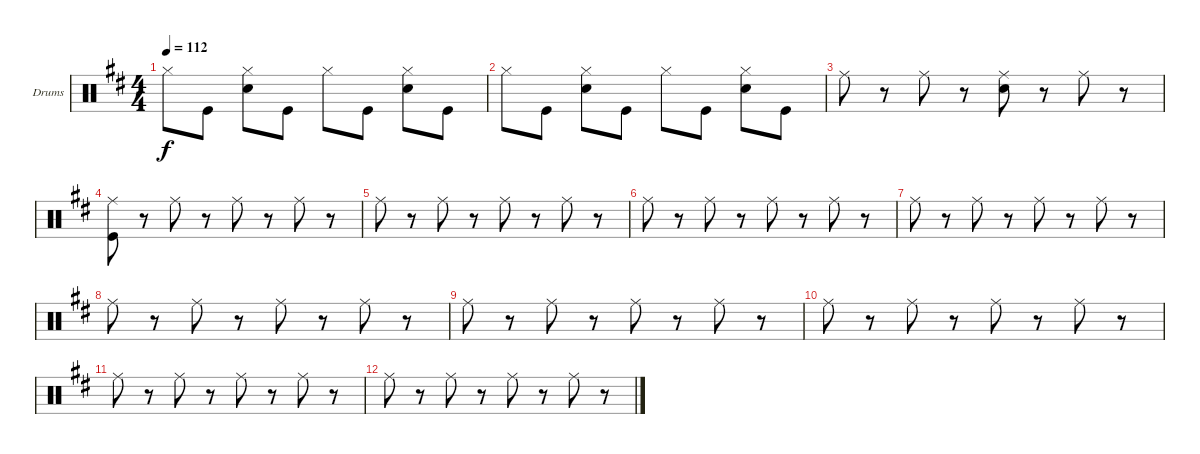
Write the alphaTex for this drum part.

\defaultSystemsLayout 4
\bracketExtendMode groupsimilarinstruments
\firstSystemTrackNameOrientation horizontal
\otherSystemsTrackNameOrientation horizontal
\track ("Drumkit" "Drums") {instrument percussion}
\staff {score}
\articulation defaults
\ts (4 4)
\tempo 112
\clef neutral
\scale
1.05044
\ks d "Hi-Hat (closed)".8{dy f} "Kick (hit)".8
("Hi-Hat (closed)" "Snare (hit) 2").8 "Kick (hit)".8 "Hi-Hat (closed)".8 "Kick (hit)".8 ("Hi-Hat (closed)" "Snare (hit) 2").8 "Kick (hit)".8 |
\scale
0.949559 "Hi-Hat (closed)".8 "Kick (hit)".8 ("Hi-Hat (closed)" "Snare (hit) 2").8 "Kick (hit)".8 "Hi-Hat (closed)".8 "Kick (hit)".8 ("Hi-Hat (closed)" "Snare (hit) 2").8 "Kick (hit)".8 |
\scale
1.05044 "Ride (middle)".8 r.8 "Ride (middle)".8 r.8 ("Ride (middle)" "Snare (hit) 2").8 r.8 "Ride (middle)".8 r.8 |
\scale
0.949559 ("Ride (middle)" "Kick (hit)").8 r.8 "Ride (middle)".8 r.8 "Ride (middle)".8 r.8 "Ride (middle)".8 r.8 |
\scale
1.05044 "Ride (middle)".8 r.8 "Ride (middle)".8 r.8 "Ride (middle)".8 r.8 "Ride (middle)".8 r.8 |
\scale
0.949559 "Ride (middle)".8 r.8 "Ride (middle)".8 r.8 "Ride (middle)".8 r.8 "Ride (middle)".8 r.8 |
\scale
1.05044 "Ride (middle)".8 r.8 "Ride (middle)".8 r.8 "Ride (middle)".8 r.8 "Ride (middle)".8 r.8 |
\scale
0.949559 "Ride (middle)".8 r.8 "Ride (middle)".8 r.8 "Ride (middle)".8 r.8 "Ride (middle)".8 r.8 |
\scale
1.05044 "Ride (middle)".8 r.8 "Ride (middle)".8 r.8 "Ride (middle)".8 r.8 "Ride (middle)".8 r.8 |
\scale
0.949559 "Ride (middle)".8 r.8 "Ride (middle)".8 r.8 "Ride (middle)".8 r.8 "Ride (middle)".8 r.8 |
\scale
1.05044 "Ride (middle)".8 r.8 "Ride (middle)".8 r.8 "Ride (middle)".8 r.8 "Ride (middle)".8 r.8 |
\scale
0.949559 "Ride (middle)".8 r.8 "Ride (middle)".8 r.8 "Ride (middle)".8 r.8 "Ride (middle)".8 r.8
